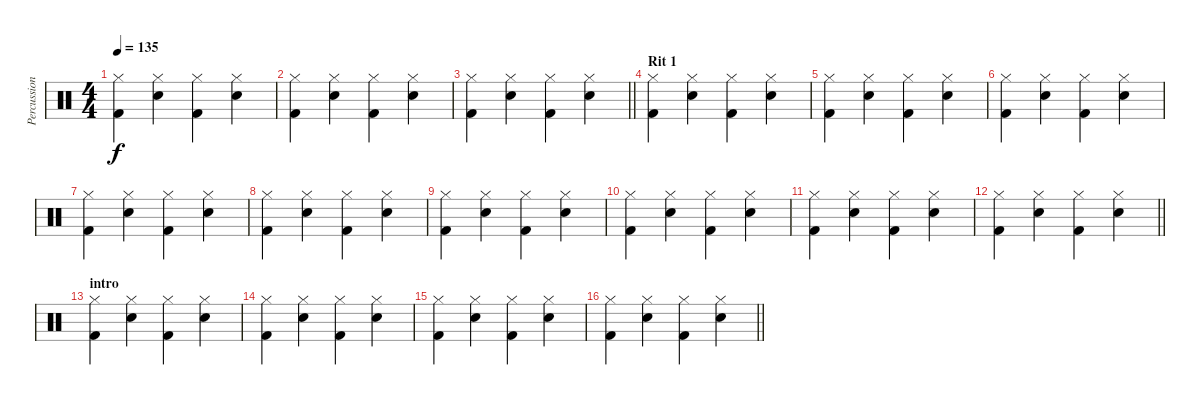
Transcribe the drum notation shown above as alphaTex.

\track ("Percussion" "Percussion") {instrument percussion}
\staff {score}
\articulation defaults
\ts (4 4)
\tempo 135
\clef neutral
\ks c
("Hi-Hat (closed)" "Kick (hit) 2").4{dy f} ("Hi-Hat (closed)" "Electric Snare (hit)").4 ("Hi-Hat (closed)" "Kick (hit) 2").4 ("Hi-Hat (closed)" "Electric Snare (hit)").4 |
("Hi-Hat (closed)" "Kick (hit) 2").4 ("Hi-Hat (closed)" "Electric Snare (hit)").4 ("Hi-Hat (closed)" "Kick (hit) 2").4 ("Hi-Hat (closed)" "Electric Snare (hit)").4 |
\barLineRight lightlight
("Hi-Hat (closed)" "Kick (hit) 2").4 ("Hi-Hat (closed)" "Electric Snare (hit)").4 ("Hi-Hat (closed)" "Kick (hit) 2").4 ("Hi-Hat (closed)" "Electric Snare (hit)").4 |
\section ("" "Rit 1")
("Hi-Hat (closed)" "Kick (hit) 2").4 ("Hi-Hat (closed)" "Electric Snare (hit)").4 ("Hi-Hat (closed)" "Kick (hit) 2").4 ("Hi-Hat (closed)" "Electric Snare (hit)").4 |
("Hi-Hat (closed)" "Kick (hit) 2").4 ("Hi-Hat (closed)" "Electric Snare (hit)").4 ("Hi-Hat (closed)" "Kick (hit) 2").4 ("Hi-Hat (closed)" "Electric Snare (hit)").4 |
("Hi-Hat (closed)" "Kick (hit) 2").4 ("Hi-Hat (closed)" "Electric Snare (hit)").4 ("Hi-Hat (closed)" "Kick (hit) 2").4 ("Hi-Hat (closed)" "Electric Snare (hit)").4 |
("Hi-Hat (closed)" "Kick (hit) 2").4 ("Hi-Hat (closed)" "Electric Snare (hit)").4 ("Hi-Hat (closed)" "Kick (hit) 2").4 ("Hi-Hat (closed)" "Electric Snare (hit)").4 |
("Hi-Hat (closed)" "Kick (hit) 2").4 ("Hi-Hat (closed)" "Electric Snare (hit)").4 ("Hi-Hat (closed)" "Kick (hit) 2").4 ("Hi-Hat (closed)" "Electric Snare (hit)").4 |
("Hi-Hat (closed)" "Kick (hit) 2").4 ("Hi-Hat (closed)" "Electric Snare (hit)").4 ("Hi-Hat (closed)" "Kick (hit) 2").4 ("Hi-Hat (closed)" "Electric Snare (hit)").4 |
("Hi-Hat (closed)" "Kick (hit) 2").4 ("Hi-Hat (closed)" "Electric Snare (hit)").4 ("Hi-Hat (closed)" "Kick (hit) 2").4 ("Hi-Hat (closed)" "Electric Snare (hit)").4 |
("Hi-Hat (closed)" "Kick (hit) 2").4 ("Hi-Hat (closed)" "Electric Snare (hit)").4 ("Hi-Hat (closed)" "Kick (hit) 2").4 ("Hi-Hat (closed)" "Electric Snare (hit)").4 |
\barLineRight lightlight
("Hi-Hat (closed)" "Kick (hit) 2").4 ("Hi-Hat (closed)" "Electric Snare (hit)").4 ("Hi-Hat (closed)" "Kick (hit) 2").4 ("Hi-Hat (closed)" "Electric Snare (hit)").4 |
\section ("" "intro")
("Hi-Hat (closed)" "Kick (hit) 2").4 ("Hi-Hat (closed)" "Electric Snare (hit)").4 ("Hi-Hat (closed)" "Kick (hit) 2").4 ("Hi-Hat (closed)" "Electric Snare (hit)").4 |
("Hi-Hat (closed)" "Kick (hit) 2").4 ("Hi-Hat (closed)" "Electric Snare (hit)").4 ("Hi-Hat (closed)" "Kick (hit) 2").4 ("Hi-Hat (closed)" "Electric Snare (hit)").4 |
("Hi-Hat (closed)" "Kick (hit) 2").4 ("Hi-Hat (closed)" "Electric Snare (hit)").4 ("Hi-Hat (closed)" "Kick (hit) 2").4 ("Hi-Hat (closed)" "Electric Snare (hit)").4 |
\barLineRight lightlight
("Hi-Hat (closed)" "Kick (hit) 2").4 ("Hi-Hat (closed)" "Electric Snare (hit)").4 ("Hi-Hat (closed)" "Kick (hit) 2").4 ("Hi-Hat (closed)" "Electric Snare (hit)").4
